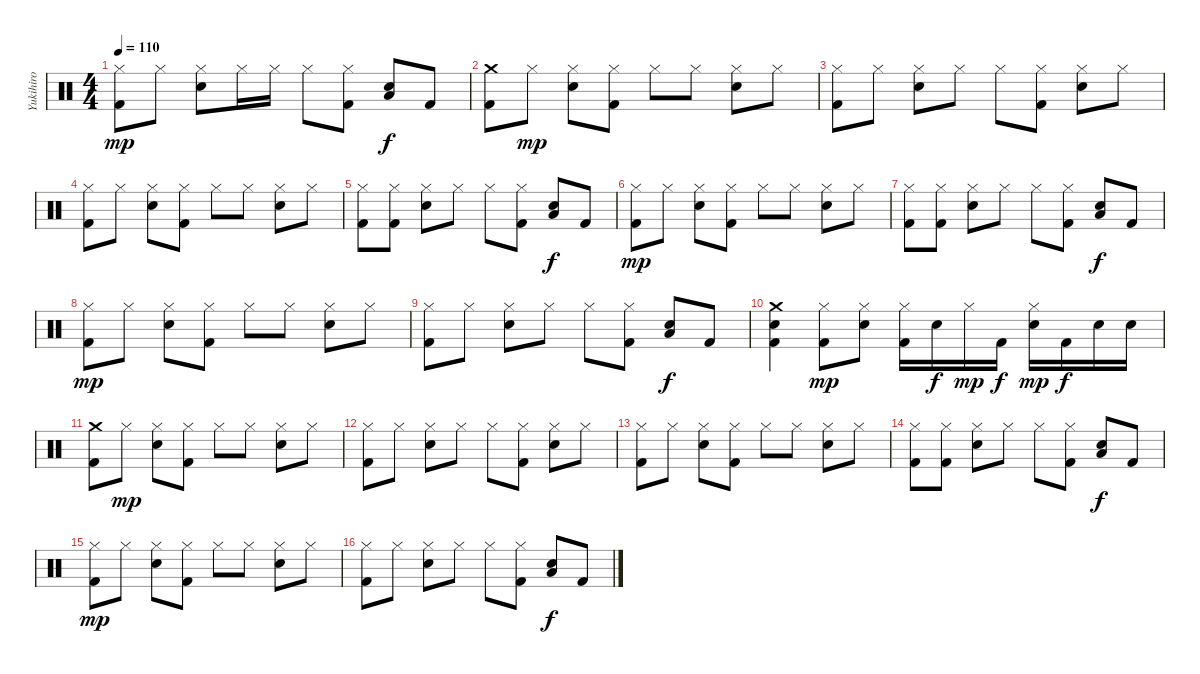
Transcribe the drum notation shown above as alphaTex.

\track ("Yukihiro " "Yukihiro ") {instrument percussion}
\staff {score}
\articulation defaults
\ts (4 4)
\tempo 110
\clef neutral
\ks c
("Hi-Hat (closed)" "Kick (hit) 2").8{dy mp} "Hi-Hat (closed)".8 ("Hi-Hat (closed)" "Electric Snare (hit)").8 "Hi-Hat (closed)".16 "Hi-Hat (closed)".16 "Hi-Hat (closed)".8 ("Hi-Hat (closed)" "Kick (hit) 2").8 ("Electric Snare (hit)" "Low Floor Tom (hit)").8{dy f} "Kick (hit) 2".8 |
("Crash medium (hit)" "Kick (hit) 2").8 "Hi-Hat (closed)".8{dy mp} ("Hi-Hat (closed)" "Electric Snare (hit)").8 ("Hi-Hat (closed)" "Kick (hit) 2").8 "Hi-Hat (closed)".8 "Hi-Hat (closed)".8 ("Hi-Hat (closed)" "Electric Snare (hit)").8 "Hi-Hat (closed)".8 |
("Hi-Hat (closed)" "Kick (hit) 2").8 "Hi-Hat (closed)".8 ("Hi-Hat (closed)" "Electric Snare (hit)").8 "Hi-Hat (closed)".8 "Hi-Hat (closed)".8 ("Hi-Hat (closed)" "Kick (hit) 2").8 ("Hi-Hat (closed)" "Electric Snare (hit)").8 "Hi-Hat (closed)".8 |
("Hi-Hat (closed)" "Kick (hit) 2").8 "Hi-Hat (closed)".8 ("Hi-Hat (closed)" "Electric Snare (hit)").8 ("Hi-Hat (closed)" "Kick (hit) 2").8 "Hi-Hat (closed)".8 "Hi-Hat (closed)".8 ("Hi-Hat (closed)" "Electric Snare (hit)").8 "Hi-Hat (closed)".8 |
("Hi-Hat (closed)" "Kick (hit) 2").8 ("Hi-Hat (closed)" "Kick (hit) 2").8 ("Hi-Hat (closed)" "Electric Snare (hit)").8 "Hi-Hat (closed)".8 "Hi-Hat (closed)".8 ("Hi-Hat (closed)" "Kick (hit) 2").8 ("Electric Snare (hit)" "Low Floor Tom (hit)").8{dy f} "Kick (hit) 2".8 |
("Hi-Hat (closed)" "Kick (hit) 2").8{dy mp} "Hi-Hat (closed)".8 ("Hi-Hat (closed)" "Electric Snare (hit)").8 ("Hi-Hat (closed)" "Kick (hit) 2").8 "Hi-Hat (closed)".8 "Hi-Hat (closed)".8 ("Hi-Hat (closed)" "Electric Snare (hit)").8 "Hi-Hat (closed)".8 |
("Hi-Hat (closed)" "Kick (hit) 2").8 ("Hi-Hat (closed)" "Kick (hit) 2").8 ("Hi-Hat (closed)" "Electric Snare (hit)").8 "Hi-Hat (closed)".8 "Hi-Hat (closed)".8 ("Hi-Hat (closed)" "Kick (hit) 2").8 ("Electric Snare (hit)" "Low Floor Tom (hit)").8{dy f} "Kick (hit) 2".8 |
("Hi-Hat (closed)" "Kick (hit) 2").8{dy mp} "Hi-Hat (closed)".8 ("Hi-Hat (closed)" "Electric Snare (hit)").8 ("Hi-Hat (closed)" "Kick (hit) 2").8 "Hi-Hat (closed)".8 "Hi-Hat (closed)".8 ("Hi-Hat (closed)" "Electric Snare (hit)").8 "Hi-Hat (closed)".8 |
("Hi-Hat (closed)" "Kick (hit) 2").8 "Hi-Hat (closed)".8 ("Hi-Hat (closed)" "Electric Snare (hit)").8 "Hi-Hat (closed)".8 "Hi-Hat (closed)".8 ("Hi-Hat (closed)" "Kick (hit) 2").8 ("Electric Snare (hit)" "Low Floor Tom (hit)").8{dy f} "Kick (hit) 2".8 |
("Crash medium (hit)" "Electric Snare (hit)" "Kick (hit) 2").4 ("Hi-Hat (closed)" "Kick (hit) 2").8{dy mp} ("Hi-Hat (closed)" "Electric Snare (hit)").8 ("Hi-Hat (closed)" "Kick (hit) 2").16 "Electric Snare (hit)".16{dy f} "Hi-Hat (closed)".16{dy mp} "Kick (hit) 2".16{dy f} ("Hi-Hat (closed)" "Electric Snare (hit)").16{dy mp} "Kick (hit) 2".16{dy f} "Electric Snare (hit)".16 "Electric Snare (hit)".16 |
("Crash medium (hit)" "Kick (hit) 2").8 "Hi-Hat (closed)".8{dy mp} ("Hi-Hat (closed)" "Electric Snare (hit)").8 ("Hi-Hat (closed)" "Kick (hit) 2").8 "Hi-Hat (closed)".8 "Hi-Hat (closed)".8 ("Hi-Hat (closed)" "Electric Snare (hit)").8 "Hi-Hat (closed)".8 |
("Hi-Hat (closed)" "Kick (hit) 2").8 "Hi-Hat (closed)".8 ("Hi-Hat (closed)" "Electric Snare (hit)").8 "Hi-Hat (closed)".8 "Hi-Hat (closed)".8 ("Hi-Hat (closed)" "Kick (hit) 2").8 ("Hi-Hat (closed)" "Electric Snare (hit)").8 "Hi-Hat (closed)".8 |
("Hi-Hat (closed)" "Kick (hit) 2").8 "Hi-Hat (closed)".8 ("Hi-Hat (closed)" "Electric Snare (hit)").8 ("Hi-Hat (closed)" "Kick (hit) 2").8 "Hi-Hat (closed)".8 "Hi-Hat (closed)".8 ("Hi-Hat (closed)" "Electric Snare (hit)").8 "Hi-Hat (closed)".8 |
("Hi-Hat (closed)" "Kick (hit) 2").8 ("Hi-Hat (closed)" "Kick (hit) 2").8 ("Hi-Hat (closed)" "Electric Snare (hit)").8 "Hi-Hat (closed)".8 "Hi-Hat (closed)".8 ("Hi-Hat (closed)" "Kick (hit) 2").8 ("Electric Snare (hit)" "Low Floor Tom (hit)").8{dy f} "Kick (hit) 2".8 |
("Hi-Hat (closed)" "Kick (hit) 2").8{dy mp} "Hi-Hat (closed)".8 ("Hi-Hat (closed)" "Electric Snare (hit)").8 ("Hi-Hat (closed)" "Kick (hit) 2").8 "Hi-Hat (closed)".8 "Hi-Hat (closed)".8 ("Hi-Hat (closed)" "Electric Snare (hit)").8 "Hi-Hat (closed)".8 |
("Hi-Hat (closed)" "Kick (hit) 2").8 "Hi-Hat (closed)".8 ("Hi-Hat (closed)" "Electric Snare (hit)").8 "Hi-Hat (closed)".8 "Hi-Hat (closed)".8 ("Hi-Hat (closed)" "Kick (hit) 2").8 ("Electric Snare (hit)" "Low Floor Tom (hit)").8{dy f} "Kick (hit) 2".8
